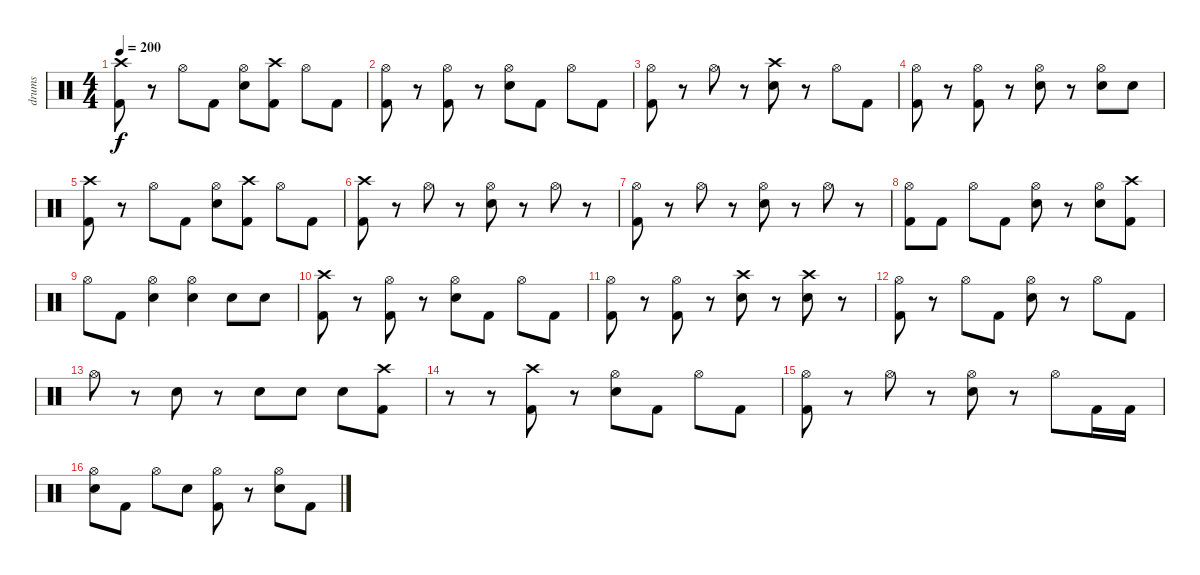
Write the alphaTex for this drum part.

\track ("drums" "drums") {instrument percussion}
\staff {score}
\articulation defaults
\ts (4 4)
\tempo 200
\clef neutral
\ks c
("Crash high (hit)" "Kick (hit) 2").8{dy f} r.8 "Hi-Hat (open)".8 "Kick (hit) 2".8 ("Hi-Hat (open)" "Snare (hit) 2").8 ("Crash high (hit)" "Kick (hit) 2").8 "Hi-Hat (open)".8 "Kick (hit) 2".8 |
("Hi-Hat (open)" "Kick (hit) 2").8 r.8 ("Hi-Hat (open)" "Kick (hit) 2").8 r.8 ("Hi-Hat (open)" "Snare (hit) 2").8 "Kick (hit) 2".8 "Hi-Hat (open)".8 "Kick (hit) 2".8 |
("Hi-Hat (open)" "Kick (hit) 2").8 r.8 "Hi-Hat (open)".8 r.8 ("Crash high (hit)" "Snare (hit) 2").8 r.8 "Hi-Hat (open)".8 "Kick (hit) 2".8 |
("Hi-Hat (open)" "Kick (hit) 2").8 r.8 ("Hi-Hat (open)" "Kick (hit) 2").8 r.8 ("Hi-Hat (open)" "Snare (hit) 2").8 r.8 ("Hi-Hat (open)" "Snare (hit) 2").8 "Snare (hit) 2".8 |
("Crash high (hit)" "Kick (hit) 2").8 r.8 "Hi-Hat (open)".8 "Kick (hit) 2".8 ("Hi-Hat (open)" "Snare (hit) 2").8 ("Crash high (hit)" "Kick (hit) 2").8 "Hi-Hat (open)".8 "Kick (hit) 2".8 |
("Crash high (hit)" "Kick (hit) 2").8 r.8 "Hi-Hat (open)".8 r.8 ("Hi-Hat (open)" "Snare (hit) 2").8 r.8 "Hi-Hat (open)".8 r.8 |
("Hi-Hat (open)" "Kick (hit) 2").8 r.8 "Hi-Hat (open)".8 r.8 ("Hi-Hat (open)" "Snare (hit) 2").8 r.8 "Hi-Hat (open)".8 r.8 |
("Hi-Hat (open)" "Kick (hit) 2").8 "Kick (hit) 2".8 "Hi-Hat (open)".8 "Kick (hit) 2".8 ("Hi-Hat (open)" "Snare (hit) 2").8 r.8 ("Hi-Hat (open)" "Snare (hit) 2").8 ("Crash high (hit)" "Kick (hit) 2").8 |
"Hi-Hat (open)".8 "Kick (hit) 2".8 ("Hi-Hat (open)" "Snare (hit) 2").4 ("Hi-Hat (open)" "Snare (hit) 2").4 "Snare (hit) 2".8 "Snare (hit) 2".8 |
("Crash high (hit)" "Kick (hit) 2").8 r.8 ("Hi-Hat (open)" "Kick (hit) 2").8 r.8 ("Hi-Hat (open)" "Snare (hit) 2").8 "Kick (hit) 2".8 "Hi-Hat (open)".8 "Kick (hit) 2".8 |
("Hi-Hat (open)" "Kick (hit) 2").8 r.8 ("Hi-Hat (open)" "Kick (hit) 2").8 r.8 ("Crash high (hit)" "Snare (hit) 2").8 r.8 ("Crash high (hit)" "Snare (hit) 2").8 r.8 |
("Hi-Hat (open)" "Kick (hit) 2").8 r.8 "Hi-Hat (open)".8 "Kick (hit) 2".8 ("Hi-Hat (open)" "Snare (hit) 2").8 r.8 "Hi-Hat (open)".8 "Kick (hit) 2".8 |
"Hi-Hat (open)".8 r.8 "Snare (hit) 2".8 r.8 "Snare (hit) 2".8 "Snare (hit) 2".8 "Snare (hit) 2".8 ("Crash high (hit)" "Kick (hit) 2").8 |
r.8 r.8 ("Crash high (hit)" "Kick (hit) 2").8 r.8 ("Hi-Hat (open)" "Snare (hit) 2").8 "Kick (hit) 2".8 "Hi-Hat (open)".8 "Kick (hit) 2".8 |
("Hi-Hat (open)" "Kick (hit) 2").8 r.8 "Hi-Hat (open)".8 r.8 ("Hi-Hat (open)" "Snare (hit) 2").8 r.8 "Hi-Hat (open)".8 "Kick (hit) 2".16 "Kick (hit) 2".16 |
("Hi-Hat (open)" "Snare (hit) 2").8 "Kick (hit) 2".8 "Hi-Hat (open)".8 "Snare (hit) 2".8 ("Hi-Hat (open)" "Kick (hit) 2").8 r.8 ("Hi-Hat (open)" "Snare (hit) 2").8 "Kick (hit) 2".8
